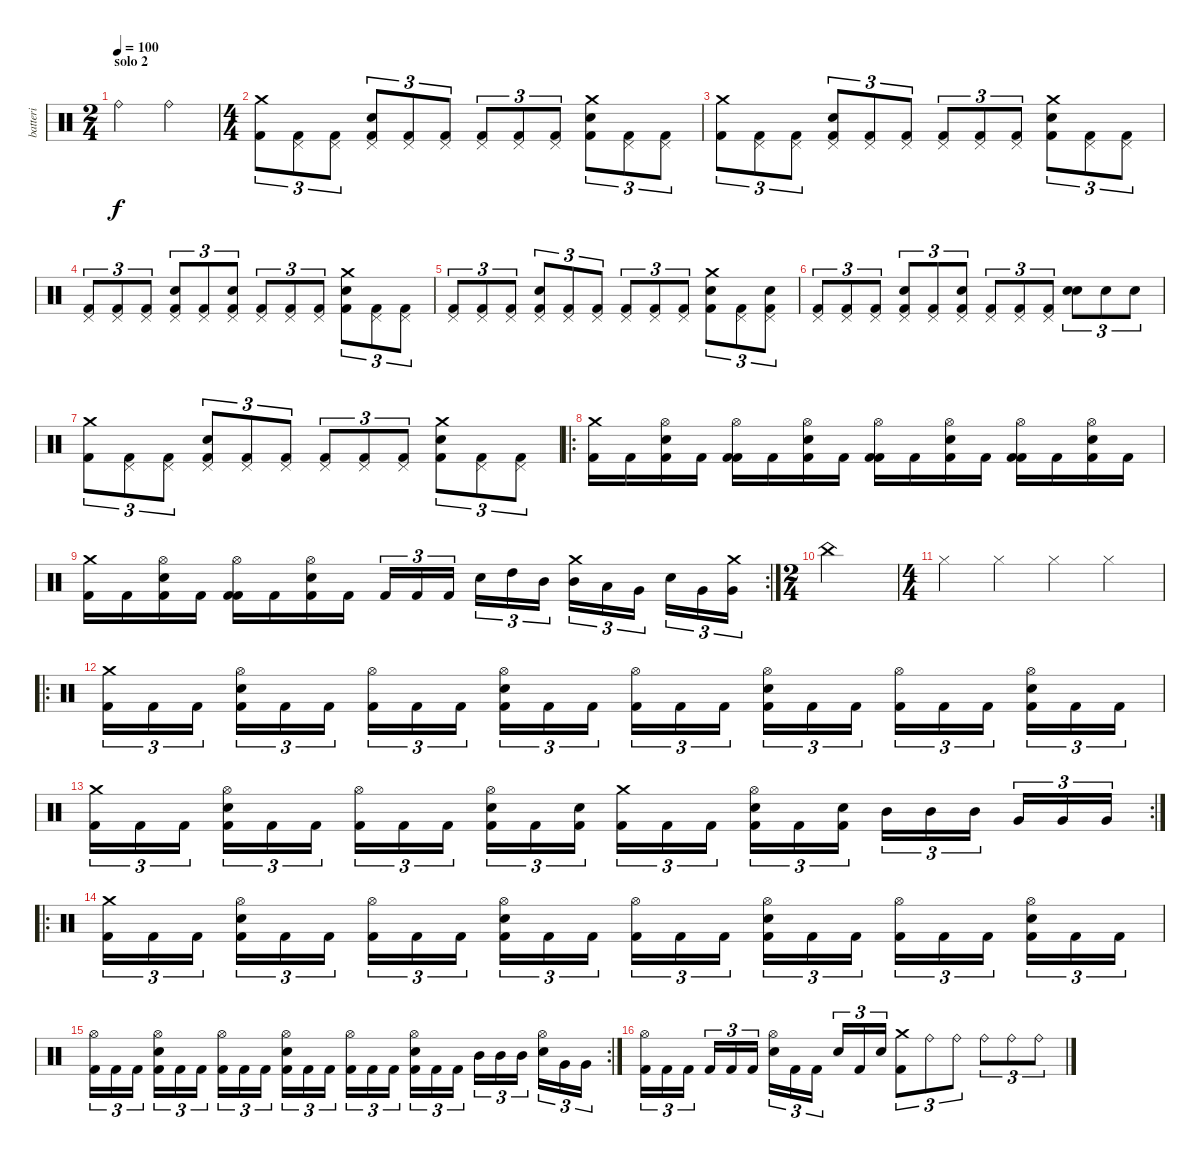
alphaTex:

\track ("batteri" "batteri") {instrument percussion}
\staff {score}
\articulation defaults
\ts (2 4)
\section ("" "solo 2")
\tempo 100
\clef neutral
\ks c "Ride (bell)".4{dy f} "Ride (bell)".4
|
\ts (4 4)
("Crash medium (hit)" "Kick (hit) 2").8{tu (3 2)} ("Pedal Hi-Hat (hit)" "Kick (hit) 2").8{tu (3 2)} ("Pedal Hi-Hat (hit)" "Kick (hit) 2").8{tu (3 2)} ("Pedal Hi-Hat (hit)" "Electric Snare (hit)" "Kick (hit) 2").8{tu (3 2)} ("Pedal Hi-Hat (hit)" "Kick (hit) 2").8{tu (3 2)} ("Pedal Hi-Hat (hit)" "Kick (hit) 2").8{tu (3 2)} ("Pedal Hi-Hat (hit)" "Kick (hit) 2").8{tu (3 2)} ("Pedal Hi-Hat (hit)" "Kick (hit) 2").8{tu (3 2)} ("Pedal Hi-Hat (hit)" "Kick (hit) 2").8{tu (3 2)} ("Crash medium (hit)" "Electric Snare (hit)" "Kick (hit) 2").8{tu (3 2)} ("Pedal Hi-Hat (hit)" "Kick (hit) 2").8{tu (3 2)} ("Pedal Hi-Hat (hit)" "Kick (hit) 2").8{tu (3 2)} |
("Crash medium (hit)" "Kick (hit) 2").8{tu (3 2)} ("Pedal Hi-Hat (hit)" "Kick (hit) 2").8{tu (3 2)} ("Pedal Hi-Hat (hit)" "Kick (hit) 2").8{tu (3 2)} ("Pedal Hi-Hat (hit)" "Electric Snare (hit)" "Kick (hit) 2").8{tu (3 2)} ("Pedal Hi-Hat (hit)" "Kick (hit) 2").8{tu (3 2)} ("Pedal Hi-Hat (hit)" "Kick (hit) 2").8{tu (3 2)} ("Pedal Hi-Hat (hit)" "Kick (hit) 2").8{tu (3 2)} ("Pedal Hi-Hat (hit)" "Kick (hit) 2").8{tu (3 2)} ("Pedal Hi-Hat (hit)" "Kick (hit) 2").8{tu (3 2)} ("Crash medium (hit)" "Electric Snare (hit)" "Kick (hit) 2").8{tu (3 2)} ("Pedal Hi-Hat (hit)" "Kick (hit) 2").8{tu (3 2)} ("Pedal Hi-Hat (hit)" "Kick (hit) 2").8{tu (3 2)} |
("Pedal Hi-Hat (hit)" "Kick (hit) 2").8{tu (3 2)} ("Pedal Hi-Hat (hit)" "Kick (hit) 2").8{tu (3 2)} ("Pedal Hi-Hat (hit)" "Kick (hit) 2").8{tu (3 2)} ("Pedal Hi-Hat (hit)" "Electric Snare (hit)" "Kick (hit) 2").8{tu (3 2)} ("Pedal Hi-Hat (hit)" "Kick (hit) 2").8{tu (3 2)} ("Pedal Hi-Hat (hit)" "Electric Snare (hit)" "Kick (hit) 2").8{tu (3 2)} ("Pedal Hi-Hat (hit)" "Kick (hit) 2").8{tu (3 2)} ("Pedal Hi-Hat (hit)" "Kick (hit) 2").8{tu (3 2)} ("Pedal Hi-Hat (hit)" "Kick (hit) 2").8{tu (3 2)} ("Crash medium (hit)" "Electric Snare (hit)" "Kick (hit) 2").8{tu (3 2)} ("Pedal Hi-Hat (hit)" "Kick (hit) 2").8{tu (3 2)} ("Pedal Hi-Hat (hit)" "Kick (hit) 2").8{tu (3 2)} |
("Pedal Hi-Hat (hit)" "Kick (hit) 2").8{tu (3 2)} ("Pedal Hi-Hat (hit)" "Kick (hit) 2").8{tu (3 2)} ("Pedal Hi-Hat (hit)" "Kick (hit) 2").8{tu (3 2)} ("Pedal Hi-Hat (hit)" "Electric Snare (hit)" "Kick (hit) 2").8{tu (3 2)} ("Pedal Hi-Hat (hit)" "Kick (hit) 2").8{tu (3 2)} ("Pedal Hi-Hat (hit)" "Kick (hit) 2").8{tu (3 2)} ("Pedal Hi-Hat (hit)" "Kick (hit) 2").8{tu (3 2)} ("Pedal Hi-Hat (hit)" "Kick (hit) 2").8{tu (3 2)} ("Pedal Hi-Hat (hit)" "Kick (hit) 2").8{tu (3 2)} ("Crash medium (hit)" "Electric Snare (hit)" "Kick (hit) 2").8{tu (3 2)} ("Pedal Hi-Hat (hit)" "Kick (hit) 2").8{tu (3 2)} ("Pedal Hi-Hat (hit)" "Electric Snare (hit)" "Kick (hit) 2").8{tu (3 2)} |
("Pedal Hi-Hat (hit)" "Kick (hit) 2").8{tu (3 2)} ("Pedal Hi-Hat (hit)" "Kick (hit) 2").8{tu (3 2)} ("Pedal Hi-Hat (hit)" "Kick (hit) 2").8{tu (3 2)} ("Pedal Hi-Hat (hit)" "Electric Snare (hit)" "Kick (hit) 2").8{tu (3 2)} ("Pedal Hi-Hat (hit)" "Kick (hit) 2").8{tu (3 2)} ("Pedal Hi-Hat (hit)" "Electric Snare (hit)" "Kick (hit) 2").8{tu (3 2)} ("Pedal Hi-Hat (hit)" "Kick (hit) 2").8{tu (3 2)} ("Pedal Hi-Hat (hit)" "Kick (hit) 2").8{tu (3 2)} ("Pedal Hi-Hat (hit)" "Kick (hit) 2").8{tu (3 2)} ("Electric Snare (hit)" "Electric Snare (hit)").8{tu (3 2)} "Electric Snare (hit)".8{tu (3 2)} "Electric Snare (hit)".8{tu (3 2)} |
("Crash medium (hit)" "Kick (hit) 2").8{tu (3 2)} ("Pedal Hi-Hat (hit)" "Kick (hit) 2").8{tu (3 2)} ("Pedal Hi-Hat (hit)" "Kick (hit) 2").8{tu (3 2)} ("Pedal Hi-Hat (hit)" "Electric Snare (hit)" "Kick (hit) 2").8{tu (3 2)} ("Pedal Hi-Hat (hit)" "Kick (hit) 2").8{tu (3 2)} ("Pedal Hi-Hat (hit)" "Kick (hit) 2").8{tu (3 2)} ("Pedal Hi-Hat (hit)" "Kick (hit) 2").8{tu (3 2)} ("Pedal Hi-Hat (hit)" "Kick (hit) 2").8{tu (3 2)} ("Pedal Hi-Hat (hit)" "Kick (hit) 2").8{tu (3 2)} ("Crash medium (hit)" "Electric Snare (hit)" "Kick (hit) 2").8{tu (3 2)} ("Pedal Hi-Hat (hit)" "Kick (hit) 2").8{tu (3 2)} ("Pedal Hi-Hat (hit)" "Kick (hit) 2").8{tu (3 2)} |
\ro
("Crash medium (hit)" "Kick (hit) 2").16 "Kick (hit) 2".16 ("Hi-Hat (open)" "Electric Snare (hit)" "Kick (hit) 2").16 "Kick (hit) 2".16 ("Hi-Hat (open)" "Kick (hit) 2" "Kick (hit) 2").16 "Kick (hit) 2".16 ("Hi-Hat (open)" "Electric Snare (hit)" "Kick (hit) 2").16 "Kick (hit) 2".16 ("Hi-Hat (open)" "Kick (hit) 2" "Kick (hit) 2").16 "Kick (hit) 2".16 ("Hi-Hat (open)" "Electric Snare (hit)" "Kick (hit) 2").16 "Kick (hit) 2".16 ("Hi-Hat (open)" "Kick (hit) 2" "Kick (hit) 2").16 "Kick (hit) 2".16 ("Hi-Hat (open)" "Electric Snare (hit)" "Kick (hit) 2").16 "Kick (hit) 2".16 |
\rc 2
("Crash medium (hit)" "Kick (hit) 2").16 "Kick (hit) 2".16 ("Hi-Hat (open)" "Electric Snare (hit)" "Kick (hit) 2").16 "Kick (hit) 2".16 ("Hi-Hat (open)" "Kick (hit) 2" "Kick (hit) 2").16 "Kick (hit) 2".16 ("Hi-Hat (open)" "Electric Snare (hit)" "Kick (hit) 2").16 "Kick (hit) 2".16 "Kick (hit) 2".16{tu (3 2)} "Kick (hit) 2".16{tu (3 2)} "Kick (hit) 2".16{tu (3 2)} "Electric Snare (hit)".16{tu (3 2)} "High Tom (hit)".16{tu (3 2)} "Mid Tom (hit)".16{tu (3 2)} ("Crash medium (hit)" "Mid Tom (hit)").16{tu (3 2)} "Low Tom (hit)".16{tu (3 2)} "Very Low Tom (hit)".16{tu (3 2)} "Electric Snare (hit)".16{tu (3 2)} "Very Low Tom (hit)".16{tu (3 2)} ("Crash medium (hit)" "Very Low Tom (hit)").16{tu (3 2)} |
\ts (2 4)
"China (hit)".2 |
\ts (4 4)
"Hi-Hat (closed)".4 "Hi-Hat (closed)".4 "Hi-Hat (closed)".4 "Hi-Hat (closed)".4 |
\ro
("Kick (hit) 2" "Crash medium (hit)").16{tu (3 2)} "Kick (hit) 2".16{tu (3 2)} "Kick (hit) 2".16{tu (3 2)} ("Electric Snare (hit)" "Kick (hit) 2" "Hi-Hat (open)").16{tu (3 2)} "Kick (hit) 2".16{tu (3 2)} "Kick (hit) 2".16{tu (3 2)} ("Kick (hit) 2" "Hi-Hat (open)").16{tu (3 2)} "Kick (hit) 2".16{tu (3 2)} "Kick (hit) 2".16{tu (3 2)} ("Electric Snare (hit)" "Kick (hit) 2" "Hi-Hat (open)").16{tu (3 2)} "Kick (hit) 2".16{tu (3 2)} "Kick (hit) 2".16{tu (3 2)} ("Kick (hit) 2" "Hi-Hat (open)").16{tu (3 2)} "Kick (hit) 2".16{tu (3 2)} "Kick (hit) 2".16{tu (3 2)} ("Electric Snare (hit)" "Kick (hit) 2" "Hi-Hat (open)").16{tu (3 2)} "Kick (hit) 2".16{tu (3 2)} "Kick (hit) 2".16{tu (3 2)} ("Kick (hit) 2" "Hi-Hat (open)").16{tu (3 2)} "Kick (hit) 2".16{tu (3 2)} "Kick (hit) 2".16{tu (3 2)} ("Electric Snare (hit)" "Kick (hit) 2" "Hi-Hat (open)").16{tu (3 2)} "Kick (hit) 2".16{tu (3 2)} "Kick (hit) 2".16{tu (3 2)} |
\rc 2
("Kick (hit) 2" "Crash medium (hit)").16{tu (3 2)} "Kick (hit) 2".16{tu (3 2)} "Kick (hit) 2".16{tu (3 2)} ("Electric Snare (hit)" "Kick (hit) 2" "Hi-Hat (open)").16{tu (3 2)} "Kick (hit) 2".16{tu (3 2)} "Kick (hit) 2".16{tu (3 2)} ("Kick (hit) 2" "Hi-Hat (open)").16{tu (3 2)} "Kick (hit) 2".16{tu (3 2)} "Kick (hit) 2".16{tu (3 2)} ("Electric Snare (hit)" "Kick (hit) 2" "Hi-Hat (open)").16{tu (3 2)} "Kick (hit) 2".16{tu (3 2)} ("Electric Snare (hit)" "Kick (hit) 2").16{tu (3 2)} ("Kick (hit) 2" "Crash medium (hit)").16{tu (3 2)} "Kick (hit) 2".16{tu (3 2)} "Kick (hit) 2".16{tu (3 2)} ("Electric Snare (hit)" "Kick (hit) 2" "Hi-Hat (open)").16{tu (3 2)} "Kick (hit) 2".16{tu (3 2)} ("Electric Snare (hit)" "Kick (hit) 2").16{tu (3 2)} "Mid Tom (hit)".16{tu (3 2)} "Mid Tom (hit)".16{tu (3 2)} "Mid Tom (hit)".16{tu (3 2)} "Very Low Tom (hit)".16{tu (3 2)} "Very Low Tom (hit)".16{tu (3 2)} "Very Low Tom (hit)".16{tu (3 2)} |
\ro
("Kick (hit) 2" "Crash medium (hit)").16{tu (3 2)} "Kick (hit) 2".16{tu (3 2)} "Kick (hit) 2".16{tu (3 2)} ("Electric Snare (hit)" "Kick (hit) 2" "Hi-Hat (open)").16{tu (3 2)} "Kick (hit) 2".16{tu (3 2)} "Kick (hit) 2".16{tu (3 2)} ("Kick (hit) 2" "Hi-Hat (open)").16{tu (3 2)} "Kick (hit) 2".16{tu (3 2)} "Kick (hit) 2".16{tu (3 2)} ("Electric Snare (hit)" "Kick (hit) 2" "Hi-Hat (open)").16{tu (3 2)} "Kick (hit) 2".16{tu (3 2)} "Kick (hit) 2".16{tu (3 2)} ("Kick (hit) 2" "Hi-Hat (open)").16{tu (3 2)} "Kick (hit) 2".16{tu (3 2)} "Kick (hit) 2".16{tu (3 2)} ("Electric Snare (hit)" "Kick (hit) 2" "Hi-Hat (open)").16{tu (3 2)} "Kick (hit) 2".16{tu (3 2)} "Kick (hit) 2".16{tu (3 2)} ("Kick (hit) 2" "Hi-Hat (open)").16{tu (3 2)} "Kick (hit) 2".16{tu (3 2)} "Kick (hit) 2".16{tu (3 2)} ("Electric Snare (hit)" "Kick (hit) 2" "Hi-Hat (open)").16{tu (3 2)} "Kick (hit) 2".16{tu (3 2)} "Kick (hit) 2".16{tu (3 2)} |
\rc 2
("Kick (hit) 2" "Hi-Hat (open)").16{tu (3 2)} "Kick (hit) 2".16{tu (3 2)} "Kick (hit) 2".16{tu (3 2)} ("Electric Snare (hit)" "Kick (hit) 2" "Hi-Hat (open)").16{tu (3 2)} "Kick (hit) 2".16{tu (3 2)} "Kick (hit) 2".16{tu (3 2)} ("Kick (hit) 2" "Hi-Hat (open)").16{tu (3 2)} "Kick (hit) 2".16{tu (3 2)} "Kick (hit) 2".16{tu (3 2)} ("Electric Snare (hit)" "Kick (hit) 2" "Hi-Hat (open)").16{tu (3 2)} "Kick (hit) 2".16{tu (3 2)} "Kick (hit) 2".16{tu (3 2)} ("Kick (hit) 2" "Hi-Hat (open)").16{tu (3 2)} "Kick (hit) 2".16{tu (3 2)} "Kick (hit) 2".16{tu (3 2)} ("Electric Snare (hit)" "Kick (hit) 2" "Hi-Hat (open)").16{tu (3 2)} "Kick (hit) 2".16{tu (3 2)} "Kick (hit) 2".16{tu (3 2)} "Mid Tom (hit)".16{tu (3 2)} "Mid Tom (hit)".16{tu (3 2)} "Mid Tom (hit)".16{tu (3 2)} ("Electric Snare (hit)" "Hi-Hat (open)").16{tu (3 2)} "Very Low Tom (hit)".16{tu (3 2)} "Very Low Tom (hit)".16{tu (3 2)} |
("Hi-Hat (open)" "Kick (hit) 2").16{tu (3 2)} "Kick (hit) 2".16{tu (3 2)} "Kick (hit) 2".16{tu (3 2)} "Kick (hit) 2".16{tu (3 2)} "Kick (hit) 2".16{tu (3 2)} "Kick (hit) 2".16{tu (3 2)} ("Hi-Hat (open)" "Electric Snare (hit)").16{tu (3 2)} "Kick (hit) 2".16{tu (3 2)} "Kick (hit) 2".16{tu (3 2)} "Electric Snare (hit)".16{tu (3 2)} "Kick (hit) 2".16{tu (3 2)} "Electric Snare (hit)".16{tu (3 2)} ("Crash medium (hit)" "Kick (hit) 2").8{tu (3 2)} "Ride (bell)".8{tu (3 2)} "Ride (bell)".8{tu (3 2)} "Ride (bell)".8{tu (3 2)} "Ride (bell)".8{tu (3 2)} "Ride (bell)".8{tu (3 2)}
